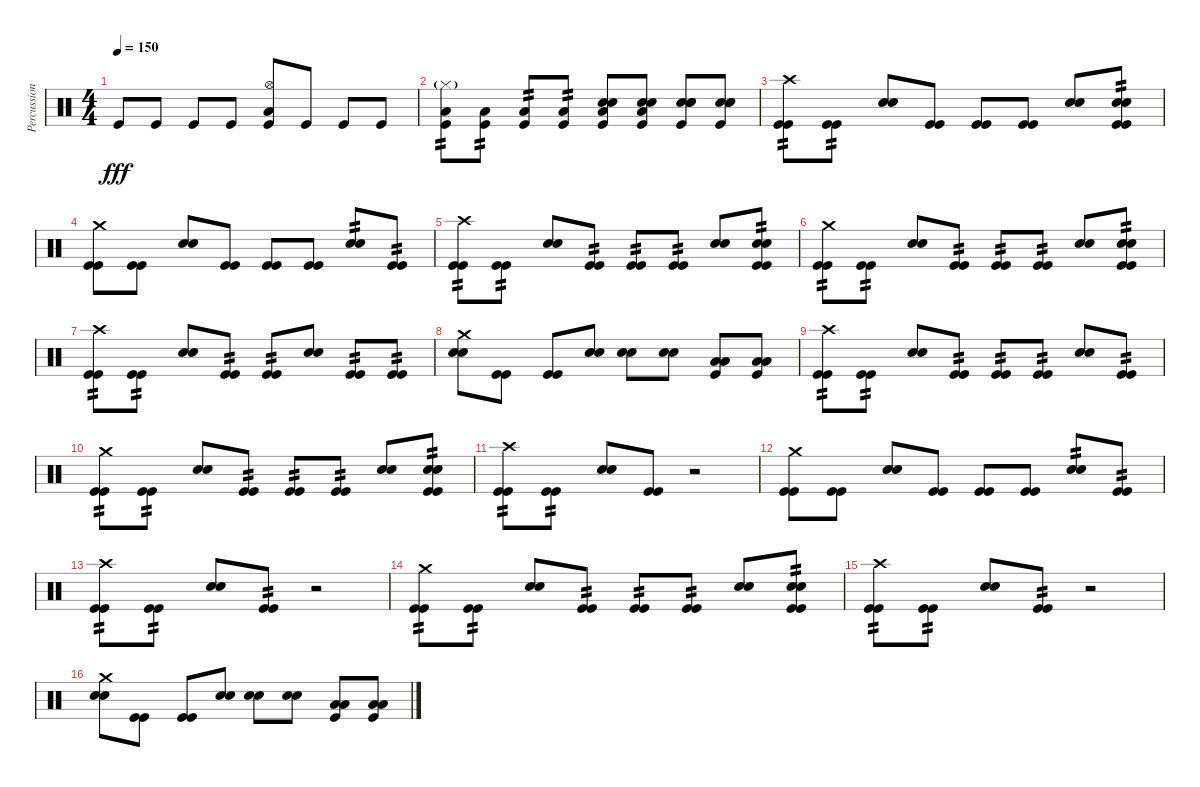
\track ("Percussion" "Percussion") {instrument percussion}
\staff {score}
\articulation defaults
\ts (4 4)
\tempo 150
\clef neutral
\ks c "Kick (hit)".8{dy fff} "Kick (hit)".8 "Kick (hit)".8 "Kick (hit)".8
("Hi-Hat (open)" "Low Floor Tom (hit)" "Kick (hit)").8 "Kick (hit)".8 "Kick (hit)".8 "Kick (hit)".8 |
("Hi-Hat (closed)"{g} "Low Floor Tom (hit)" "Kick (hit)").8{tp 2} ("Low Floor Tom (hit)" "Kick (hit)").8{tp 2} ("Low Floor Tom (hit)" "Kick (hit)").8{tp 2} ("Low Floor Tom (hit)" "Kick (hit)").8{tp 2} ("Snare (hit) 2" "Snare (hit) 2" "Low Tom (hit)" "Kick (hit)").8 ("Snare (hit) 2" "Snare (hit) 2" "Low Tom (hit)" "Kick (hit)").8 ("Snare (hit) 2" "Snare (hit) 2" "Snare (hit) 2" "Kick (hit)").8 ("Snare (hit) 2" "Snare (hit) 2" "Snare (hit) 2" "Kick (hit)").8 |
("Crash high (hit)" "Kick (hit)" "Kick (hit)").8{tp 2} ("Kick (hit)" "Kick (hit)").8{tp 2} ("Snare (hit) 2" "Snare (hit) 2").8 ("Kick (hit)" "Kick (hit)").8 ("Kick (hit)" "Kick (hit)").8 ("Kick (hit)" "Kick (hit)").8 ("Snare (hit) 2" "Snare (hit) 2").8 ("Snare (hit) 2" "Snare (hit) 2" "Kick (hit)" "Kick (hit)").8{tp 2} |
("Crash medium (hit)" "Kick (hit)" "Kick (hit)").8 ("Kick (hit)" "Kick (hit)").8 ("Snare (hit) 2" "Snare (hit) 2").8 ("Kick (hit)" "Kick (hit)").8 ("Kick (hit)" "Kick (hit)").8 ("Kick (hit)" "Kick (hit)").8 ("Snare (hit) 2" "Snare (hit) 2").8{tp 2} ("Kick (hit)" "Kick (hit)").8{tp 2} |
("Crash high (hit)" "Kick (hit)" "Kick (hit)").8{tp 2} ("Kick (hit)" "Kick (hit)").8{tp 2} ("Snare (hit) 2" "Snare (hit) 2").8 ("Kick (hit)" "Kick (hit)").8{tp 2} ("Kick (hit)" "Kick (hit)").8{tp 2} ("Kick (hit)" "Kick (hit)").8{tp 2} ("Snare (hit) 2" "Snare (hit) 2").8 ("Snare (hit) 2" "Snare (hit) 2" "Kick (hit)" "Kick (hit)").8{tp 2} |
("Crash medium (hit)" "Kick (hit)" "Kick (hit)").8{tp 2} ("Kick (hit)" "Kick (hit)").8{tp 2} ("Snare (hit) 2" "Snare (hit) 2").8 ("Kick (hit)" "Kick (hit)").8{tp 2} ("Kick (hit)" "Kick (hit)").8{tp 2} ("Kick (hit)" "Kick (hit)").8{tp 2} ("Snare (hit) 2" "Snare (hit) 2").8 ("Snare (hit) 2" "Snare (hit) 2" "Kick (hit)" "Kick (hit)").8{tp 2} |
("Crash high (hit)" "Kick (hit)" "Kick (hit)").8{tp 2} ("Kick (hit)" "Kick (hit)").8{tp 2} ("Snare (hit) 2" "Snare (hit) 2").8 ("Kick (hit)" "Kick (hit)").8{tp 2} ("Kick (hit)" "Kick (hit)").8{tp 2} ("Snare (hit) 2" "Snare (hit) 2").8 ("Kick (hit)" "Kick (hit)").8{tp 2} ("Kick (hit)" "Kick (hit)").8{tp 2} |
("Crash medium (hit)" "Snare (hit) 2" "Snare (hit) 2").8 ("Kick (hit)" "Kick (hit)").8 ("Kick (hit)" "Kick (hit)").8 ("Snare (hit) 2" "Snare (hit) 2").8 ("Snare (hit) 2" "Snare (hit) 2").8 ("Snare (hit) 2" "Snare (hit) 2").8 ("Low Floor Tom (hit)" "Low Floor Tom (hit)" "Kick (hit)").8 ("Low Floor Tom (hit)" "Low Floor Tom (hit)" "Kick (hit)").8 |
("Crash high (hit)" "Kick (hit)" "Kick (hit)").8{tp 2} ("Kick (hit)" "Kick (hit)").8{tp 2} ("Snare (hit) 2" "Snare (hit) 2").8 ("Kick (hit)" "Kick (hit)").8{tp 2} ("Kick (hit)" "Kick (hit)").8{tp 2} ("Kick (hit)" "Kick (hit)").8{tp 2} ("Snare (hit) 2" "Snare (hit) 2").8 ("Kick (hit)" "Kick (hit)").8{tp 2} |
("Crash medium (hit)" "Kick (hit)" "Kick (hit)").8{tp 2} ("Kick (hit)" "Kick (hit)").8{tp 2} ("Snare (hit) 2" "Snare (hit) 2").8 ("Kick (hit)" "Kick (hit)").8{tp 2} ("Kick (hit)" "Kick (hit)").8{tp 2} ("Kick (hit)" "Kick (hit)").8{tp 2} ("Snare (hit) 2" "Snare (hit) 2").8 ("Snare (hit) 2" "Snare (hit) 2" "Kick (hit)" "Kick (hit)").8{tp 2} |
("Crash high (hit)" "Kick (hit)" "Kick (hit)").8{tp 2} ("Kick (hit)" "Kick (hit)").8{tp 2} ("Snare (hit) 2" "Snare (hit) 2").8 ("Kick (hit)" "Kick (hit)").8 r.2 |
("Crash medium (hit)" "Kick (hit)" "Kick (hit)").8 ("Kick (hit)" "Kick (hit)").8 ("Snare (hit) 2" "Snare (hit) 2").8 ("Kick (hit)" "Kick (hit)").8 ("Kick (hit)" "Kick (hit)").8 ("Kick (hit)" "Kick (hit)").8 ("Snare (hit) 2" "Snare (hit) 2").8{tp 2} ("Kick (hit)" "Kick (hit)").8{tp 2} |
("Crash high (hit)" "Kick (hit)" "Kick (hit)").8{tp 2} ("Kick (hit)" "Kick (hit)").8{tp 2} ("Snare (hit) 2" "Snare (hit) 2").8 ("Kick (hit)" "Kick (hit)").8{tp 2} r.2 |
("Crash medium (hit)" "Kick (hit)" "Kick (hit)").8{tp 2} ("Kick (hit)" "Kick (hit)").8{tp 2} ("Snare (hit) 2" "Snare (hit) 2").8 ("Kick (hit)" "Kick (hit)").8{tp 2} ("Kick (hit)" "Kick (hit)").8{tp 2} ("Kick (hit)" "Kick (hit)").8{tp 2} ("Snare (hit) 2" "Snare (hit) 2").8 ("Snare (hit) 2" "Snare (hit) 2" "Kick (hit)" "Kick (hit)").8{tp 2} |
("Crash high (hit)" "Kick (hit)" "Kick (hit)").8{tp 2} ("Kick (hit)" "Kick (hit)").8{tp 2} ("Snare (hit) 2" "Snare (hit) 2").8 ("Kick (hit)" "Kick (hit)").8{tp 2} r.2 |
("Crash medium (hit)" "Snare (hit) 2" "Snare (hit) 2").8 ("Kick (hit)" "Kick (hit)").8 ("Kick (hit)" "Kick (hit)").8 ("Snare (hit) 2" "Snare (hit) 2").8 ("Snare (hit) 2" "Snare (hit) 2").8 ("Snare (hit) 2" "Snare (hit) 2").8 ("Low Floor Tom (hit)" "Low Floor Tom (hit)" "Kick (hit)").8 ("Low Floor Tom (hit)" "Low Floor Tom (hit)" "Kick (hit)").8
